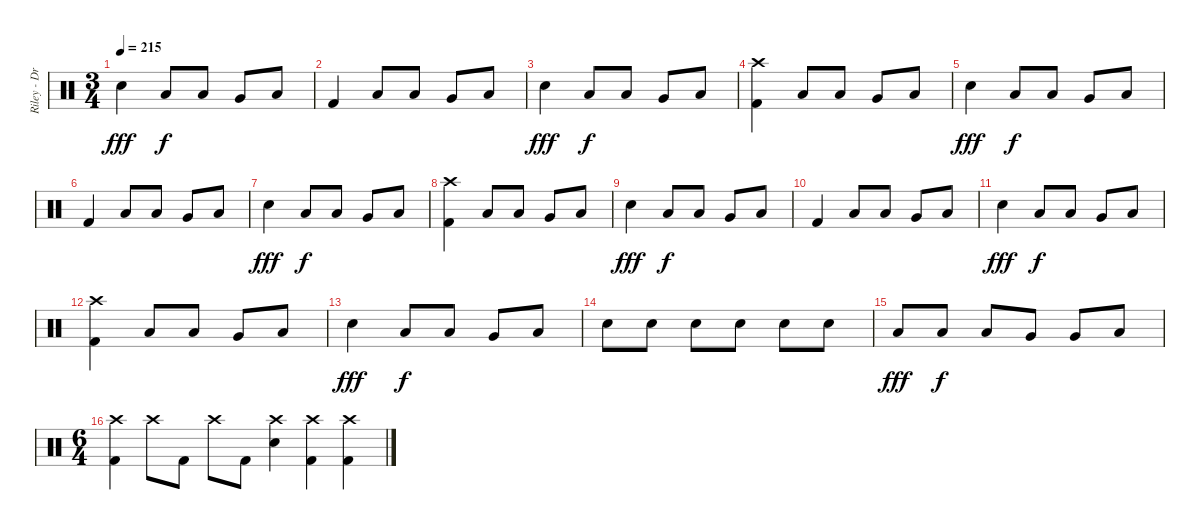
\track ("Riley - Drums" "Riley - Dr") {instrument percussion}
\staff {score}
\articulation defaults
\ts (3 4)
\tempo 215
\clef neutral
\ks c "Electric Snare (hit)".4{dy fff} "Low Tom (hit)".8{dy f} "Low Tom (hit)".8 "Very Low Tom (hit)".8 "Low Floor Tom (hit)".8
|
"Kick (hit) 2".4 "Low Tom (hit)".8 "Low Tom (hit)".8 "Very Low Tom (hit)".8 "Low Floor Tom (hit)".8 |
"Electric Snare (hit)".4{dy fff} "Low Tom (hit)".8{dy f} "Low Tom (hit)".8 "Very Low Tom (hit)".8 "Low Floor Tom (hit)".8 |
("Crash high (hit)" "Kick (hit) 2").4 "Low Tom (hit)".8 "Low Tom (hit)".8 "Very Low Tom (hit)".8 "Low Floor Tom (hit)".8 |
"Electric Snare (hit)".4{dy fff} "Low Tom (hit)".8{dy f} "Low Tom (hit)".8 "Very Low Tom (hit)".8 "Low Floor Tom (hit)".8 |
"Kick (hit) 2".4 "Low Tom (hit)".8 "Low Tom (hit)".8 "Very Low Tom (hit)".8 "Low Floor Tom (hit)".8 |
"Electric Snare (hit)".4{dy fff} "Low Tom (hit)".8{dy f} "Low Tom (hit)".8 "Very Low Tom (hit)".8 "Low Floor Tom (hit)".8 |
("Crash high (hit)" "Kick (hit) 2").4 "Low Tom (hit)".8 "Low Tom (hit)".8 "Very Low Tom (hit)".8 "Low Floor Tom (hit)".8 |
"Electric Snare (hit)".4{dy fff} "Low Tom (hit)".8{dy f} "Low Tom (hit)".8 "Very Low Tom (hit)".8 "Low Floor Tom (hit)".8 |
"Kick (hit) 2".4 "Low Tom (hit)".8 "Low Tom (hit)".8 "Very Low Tom (hit)".8 "Low Floor Tom (hit)".8 |
"Electric Snare (hit)".4{dy fff} "Low Tom (hit)".8{dy f} "Low Tom (hit)".8 "Very Low Tom (hit)".8 "Low Floor Tom (hit)".8 |
("Crash high (hit)" "Kick (hit) 2").4 "Low Tom (hit)".8 "Low Tom (hit)".8 "Very Low Tom (hit)".8 "Low Floor Tom (hit)".8 |
"Electric Snare (hit)".4{dy fff} "Low Tom (hit)".8{dy f} "Low Tom (hit)".8 "Very Low Tom (hit)".8 "Low Floor Tom (hit)".8 |
"Electric Snare (hit)".8 "Electric Snare (hit)".8 "Electric Snare (hit)".8 "Electric Snare (hit)".8 "Electric Snare (hit)".8 "Electric Snare (hit)".8 |
"Low Tom (hit)".8{dy fff} "Low Tom (hit)".8{dy f} "Low Tom (hit)".8 "Very Low Tom (hit)".8 "Very Low Tom (hit)".8 "Low Floor Tom (hit)".8 |
\ts (6 4)
("Crash high (hit)" "Kick (hit) 2").4 "Crash high (hit)".8 "Kick (hit) 2".8 "Crash high (hit)".8 "Kick (hit) 2".8 ("Crash high (hit)" "Electric Snare (hit)").4 ("Crash high (hit)" "Kick (hit) 2").4 ("Crash high (hit)" "Kick (hit) 2").4
